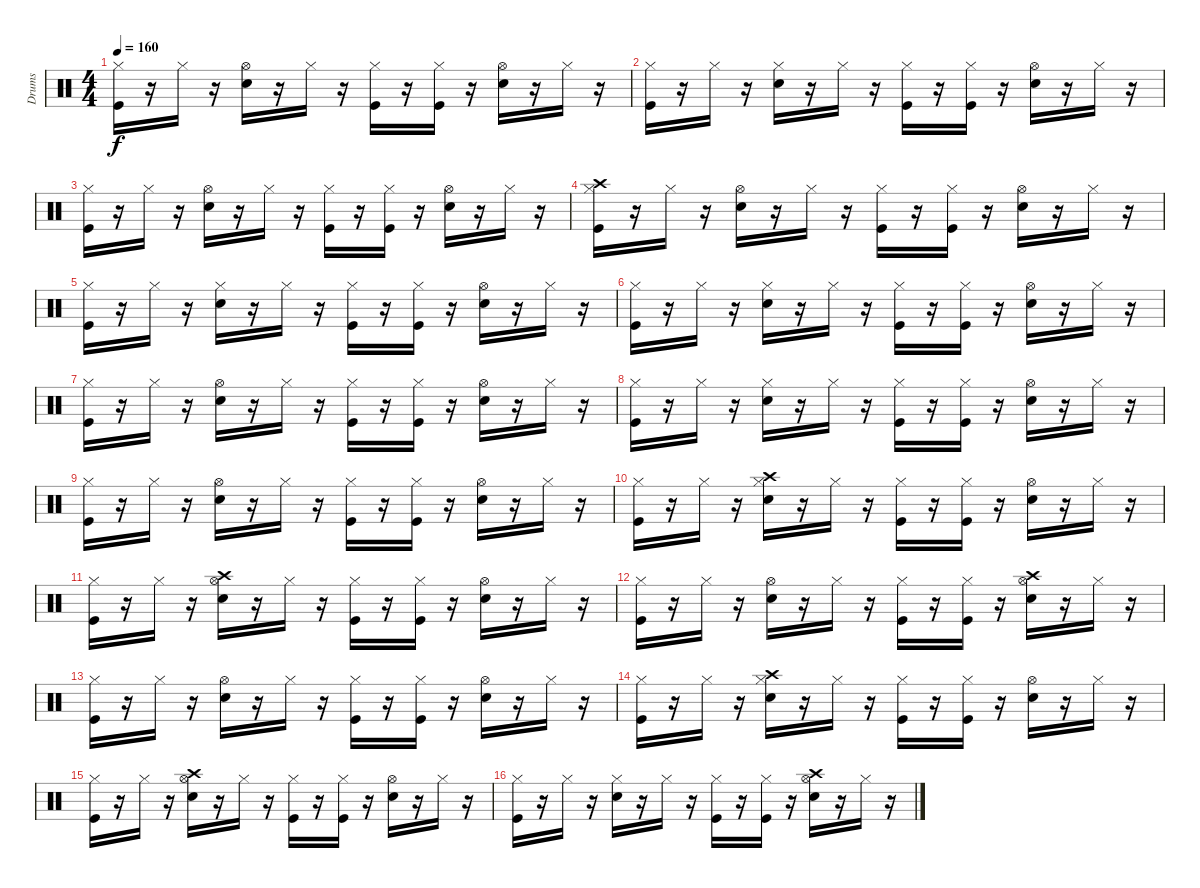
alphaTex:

\track ("Drums" "Drums") {instrument percussion}
\staff {score}
\articulation defaults
\ts (4 4)
\tempo 160
\clef neutral
\ks c
("Hi-Hat (closed)" "Kick (hit)").16{dy f} r.16 "Hi-Hat (closed)".16 r.16 ("Hi-Hat (open)" "Snare (hit) 2").16 r.16 "Hi-Hat (closed)".16 r.16 ("Hi-Hat (closed)" "Kick (hit)").16 r.16 ("Kick (hit)" "Hi-Hat (closed)").16 r.16 ("Hi-Hat (open)" "Snare (hit) 2").16 r.16 "Hi-Hat (closed)".16 r.16 |
("Hi-Hat (closed)" "Kick (hit)").16 r.16 "Hi-Hat (closed)".16 r.16 ("Hi-Hat (closed)" "Snare (hit) 2").16 r.16 "Hi-Hat (closed)".16 r.16 ("Hi-Hat (closed)" "Kick (hit)").16 r.16 ("Kick (hit)" "Hi-Hat (closed)").16 r.16 ("Hi-Hat (open)" "Snare (hit) 2").16 r.16 "Hi-Hat (closed)".16 r.16 |
("Hi-Hat (closed)" "Kick (hit)").16 r.16 "Hi-Hat (closed)".16 r.16 ("Hi-Hat (open)" "Snare (hit) 2").16 r.16 "Hi-Hat (closed)".16 r.16 ("Hi-Hat (closed)" "Kick (hit)").16 r.16 ("Kick (hit)" "Hi-Hat (closed)").16 r.16 ("Hi-Hat (open)" "Snare (hit) 2").16 r.16 "Hi-Hat (closed)".16 r.16 |
("Crash high (hit)" "Hi-Hat (closed)" "Kick (hit)").16 r.16 "Hi-Hat (closed)".16 r.16 ("Hi-Hat (open)" "Snare (hit) 2").16 r.16 "Hi-Hat (closed)".16 r.16 ("Hi-Hat (closed)" "Kick (hit)").16 r.16 ("Kick (hit)" "Hi-Hat (closed)").16 r.16 ("Hi-Hat (open)" "Snare (hit) 2").16 r.16 "Hi-Hat (closed)".16 r.16 |
("Hi-Hat (closed)" "Kick (hit)").16 r.16 "Hi-Hat (closed)".16 r.16 ("Hi-Hat (closed)" "Snare (hit) 2").16 r.16 "Hi-Hat (closed)".16 r.16 ("Hi-Hat (closed)" "Kick (hit)").16 r.16 ("Kick (hit)" "Hi-Hat (closed)").16 r.16 ("Hi-Hat (open)" "Snare (hit) 2").16 r.16 "Hi-Hat (closed)".16 r.16 |
("Hi-Hat (closed)" "Kick (hit)").16 r.16 "Hi-Hat (closed)".16 r.16 ("Hi-Hat (closed)" "Snare (hit) 2").16 r.16 "Hi-Hat (closed)".16 r.16 ("Hi-Hat (closed)" "Kick (hit)").16 r.16 ("Kick (hit)" "Hi-Hat (closed)").16 r.16 ("Hi-Hat (open)" "Snare (hit) 2").16 r.16 "Hi-Hat (closed)".16 r.16 |
("Hi-Hat (closed)" "Kick (hit)").16 r.16 "Hi-Hat (closed)".16 r.16 ("Hi-Hat (open)" "Snare (hit) 2").16 r.16 "Hi-Hat (closed)".16 r.16 ("Hi-Hat (closed)" "Kick (hit)").16 r.16 ("Kick (hit)" "Hi-Hat (closed)").16 r.16 ("Hi-Hat (open)" "Snare (hit) 2").16 r.16 "Hi-Hat (closed)".16 r.16 |
("Hi-Hat (closed)" "Kick (hit)").16 r.16 "Hi-Hat (closed)".16 r.16 ("Hi-Hat (closed)" "Snare (hit) 2").16 r.16 "Hi-Hat (closed)".16 r.16 ("Hi-Hat (closed)" "Kick (hit)").16 r.16 ("Kick (hit)" "Hi-Hat (closed)").16 r.16 ("Hi-Hat (open)" "Snare (hit) 2").16 r.16 "Hi-Hat (closed)".16 r.16 |
("Hi-Hat (closed)" "Kick (hit)").16 r.16 "Hi-Hat (closed)".16 r.16 ("Hi-Hat (open)" "Snare (hit) 2").16 r.16 "Hi-Hat (closed)".16 r.16 ("Hi-Hat (closed)" "Kick (hit)").16 r.16 ("Kick (hit)" "Hi-Hat (closed)").16 r.16 ("Hi-Hat (open)" "Snare (hit) 2").16 r.16 "Hi-Hat (closed)".16 r.16 |
("Hi-Hat (closed)" "Kick (hit)").16 r.16 "Hi-Hat (closed)".16 r.16 ("Crash high (hit)" "Hi-Hat (closed)" "Snare (hit) 2").16 r.16 "Hi-Hat (closed)".16 r.16 ("Hi-Hat (closed)" "Kick (hit)").16 r.16 ("Kick (hit)" "Hi-Hat (closed)").16 r.16 ("Hi-Hat (open)" "Snare (hit) 2").16 r.16 "Hi-Hat (closed)".16 r.16 |
("Hi-Hat (closed)" "Kick (hit)").16 r.16 "Hi-Hat (closed)".16 r.16 ("Crash high (hit)" "Hi-Hat (open)" "Snare (hit) 2").16 r.16 "Hi-Hat (closed)".16 r.16 ("Hi-Hat (closed)" "Kick (hit)").16 r.16 ("Kick (hit)" "Hi-Hat (closed)").16 r.16 ("Hi-Hat (open)" "Snare (hit) 2").16 r.16 "Hi-Hat (closed)".16 r.16 |
("Hi-Hat (closed)" "Kick (hit)").16 r.16 "Hi-Hat (closed)".16 r.16 ("Hi-Hat (open)" "Snare (hit) 2").16 r.16 "Hi-Hat (closed)".16 r.16 ("Hi-Hat (closed)" "Kick (hit)").16 r.16 ("Kick (hit)" "Hi-Hat (closed)").16 r.16 ("Crash high (hit)" "Hi-Hat (open)" "Snare (hit) 2").16 r.16 "Hi-Hat (closed)".16 r.16 |
("Hi-Hat (closed)" "Kick (hit)").16 r.16 "Hi-Hat (closed)".16 r.16 ("Hi-Hat (open)" "Snare (hit) 2").16 r.16 "Hi-Hat (closed)".16 r.16 ("Hi-Hat (closed)" "Kick (hit)").16 r.16 ("Kick (hit)" "Hi-Hat (closed)").16 r.16 ("Hi-Hat (open)" "Snare (hit) 2").16 r.16 "Hi-Hat (closed)".16 r.16 |
("Hi-Hat (closed)" "Kick (hit)").16 r.16 "Hi-Hat (closed)".16 r.16 ("Crash high (hit)" "Hi-Hat (closed)" "Snare (hit) 2").16 r.16 "Hi-Hat (closed)".16 r.16 ("Hi-Hat (closed)" "Kick (hit)").16 r.16 ("Kick (hit)" "Hi-Hat (closed)").16 r.16 ("Hi-Hat (open)" "Snare (hit) 2").16 r.16 "Hi-Hat (closed)".16 r.16 |
("Hi-Hat (closed)" "Kick (hit)").16 r.16 "Hi-Hat (closed)".16 r.16 ("Crash high (hit)" "Hi-Hat (open)" "Snare (hit) 2").16 r.16 "Hi-Hat (closed)".16 r.16 ("Hi-Hat (closed)" "Kick (hit)").16 r.16 ("Kick (hit)" "Hi-Hat (closed)").16 r.16 ("Hi-Hat (open)" "Snare (hit) 2").16 r.16 "Hi-Hat (closed)".16 r.16 |
("Hi-Hat (closed)" "Kick (hit)").16 r.16 "Hi-Hat (closed)".16 r.16 ("Hi-Hat (closed)" "Snare (hit) 2").16 r.16 "Hi-Hat (closed)".16 r.16 ("Hi-Hat (closed)" "Kick (hit)").16 r.16 ("Kick (hit)" "Hi-Hat (closed)").16 r.16 ("Crash high (hit)" "Hi-Hat (open)" "Snare (hit) 2").16 r.16 "Hi-Hat (closed)".16 r.16
